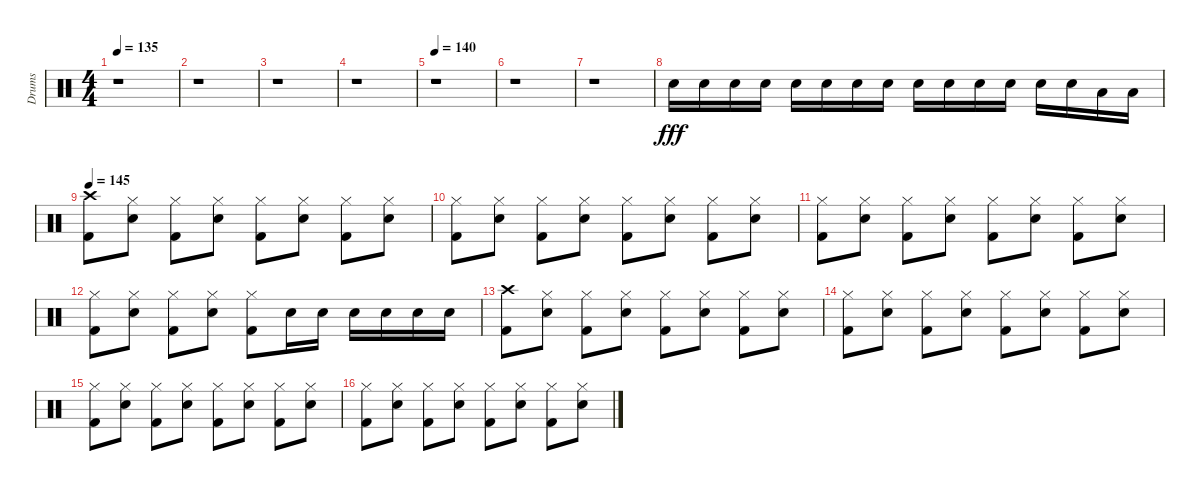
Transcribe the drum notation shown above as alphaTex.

\track ("Drums" "Drums") {instrument percussion}
\staff {score}
\articulation defaults
\ts (4 4)
\tempo 135
\clef neutral
\ks c
r.1{dy fff} |
r.1 |
r.1 |
r.1 |
\tempo 140
r.1 |
r.1 |
r.1 |
"Electric Snare (hit)".16 "Electric Snare (hit)".16 "Electric Snare (hit)".16 "Electric Snare (hit)".16 "Electric Snare (hit)".16 "Electric Snare (hit)".16 "Electric Snare (hit)".16 "Electric Snare (hit)".16 "Electric Snare (hit)".16 "Electric Snare (hit)".16 "Electric Snare (hit)".16 "Electric Snare (hit)".16 "Electric Snare (hit)".16 "Electric Snare (hit)".16 "Low Tom (hit)".16 "Low Tom (hit)".16 |
\tempo 145
("Crash high (hit)" "Kick (hit) 2").8 ("Hi-Hat (closed)" "Electric Snare (hit)").8 ("Hi-Hat (closed)" "Kick (hit) 2").8 ("Hi-Hat (closed)" "Electric Snare (hit)").8 ("Hi-Hat (closed)" "Kick (hit) 2").8 ("Hi-Hat (closed)" "Electric Snare (hit)").8 ("Hi-Hat (closed)" "Kick (hit) 2").8 ("Hi-Hat (closed)" "Electric Snare (hit)").8 |
("Hi-Hat (closed)" "Kick (hit) 2").8 ("Hi-Hat (closed)" "Electric Snare (hit)").8 ("Hi-Hat (closed)" "Kick (hit) 2").8 ("Hi-Hat (closed)" "Electric Snare (hit)").8 ("Hi-Hat (closed)" "Kick (hit) 2").8 ("Hi-Hat (closed)" "Electric Snare (hit)").8 ("Hi-Hat (closed)" "Kick (hit) 2").8 ("Hi-Hat (closed)" "Electric Snare (hit)").8 |
("Hi-Hat (closed)" "Kick (hit) 2").8 ("Hi-Hat (closed)" "Electric Snare (hit)").8 ("Hi-Hat (closed)" "Kick (hit) 2").8 ("Hi-Hat (closed)" "Electric Snare (hit)").8 ("Hi-Hat (closed)" "Kick (hit) 2").8 ("Hi-Hat (closed)" "Electric Snare (hit)").8 ("Hi-Hat (closed)" "Kick (hit) 2").8 ("Hi-Hat (closed)" "Electric Snare (hit)").8 |
("Hi-Hat (closed)" "Kick (hit) 2").8 ("Hi-Hat (closed)" "Electric Snare (hit)").8 ("Hi-Hat (closed)" "Kick (hit) 2").8 ("Hi-Hat (closed)" "Electric Snare (hit)").8 ("Hi-Hat (closed)" "Kick (hit) 2").8 "Electric Snare (hit)".16 "Electric Snare (hit)".16 "Electric Snare (hit)".16 "Electric Snare (hit)".16 "Electric Snare (hit)".16 "Electric Snare (hit)".16 |
("Crash high (hit)" "Kick (hit) 2").8 ("Hi-Hat (closed)" "Electric Snare (hit)").8 ("Hi-Hat (closed)" "Kick (hit) 2").8 ("Hi-Hat (closed)" "Electric Snare (hit)").8 ("Hi-Hat (closed)" "Kick (hit) 2").8 ("Hi-Hat (closed)" "Electric Snare (hit)").8 ("Hi-Hat (closed)" "Kick (hit) 2").8 ("Hi-Hat (closed)" "Electric Snare (hit)").8 |
("Hi-Hat (closed)" "Kick (hit) 2").8 ("Hi-Hat (closed)" "Electric Snare (hit)").8 ("Hi-Hat (closed)" "Kick (hit) 2").8 ("Hi-Hat (closed)" "Electric Snare (hit)").8 ("Hi-Hat (closed)" "Kick (hit) 2").8 ("Hi-Hat (closed)" "Electric Snare (hit)").8 ("Hi-Hat (closed)" "Kick (hit) 2").8 ("Hi-Hat (closed)" "Electric Snare (hit)").8 |
("Hi-Hat (closed)" "Kick (hit) 2").8 ("Hi-Hat (closed)" "Electric Snare (hit)").8 ("Hi-Hat (closed)" "Kick (hit) 2").8 ("Hi-Hat (closed)" "Electric Snare (hit)").8 ("Hi-Hat (closed)" "Kick (hit) 2").8 ("Hi-Hat (closed)" "Electric Snare (hit)").8 ("Hi-Hat (closed)" "Kick (hit) 2").8 ("Hi-Hat (closed)" "Electric Snare (hit)").8 |
("Hi-Hat (closed)" "Kick (hit) 2").8 ("Hi-Hat (closed)" "Electric Snare (hit)").8 ("Hi-Hat (closed)" "Kick (hit) 2").8 ("Hi-Hat (closed)" "Electric Snare (hit)").8 ("Hi-Hat (closed)" "Kick (hit) 2").8 ("Hi-Hat (closed)" "Electric Snare (hit)").8 ("Hi-Hat (closed)" "Kick (hit) 2").8 ("Hi-Hat (closed)" "Electric Snare (hit)").8
